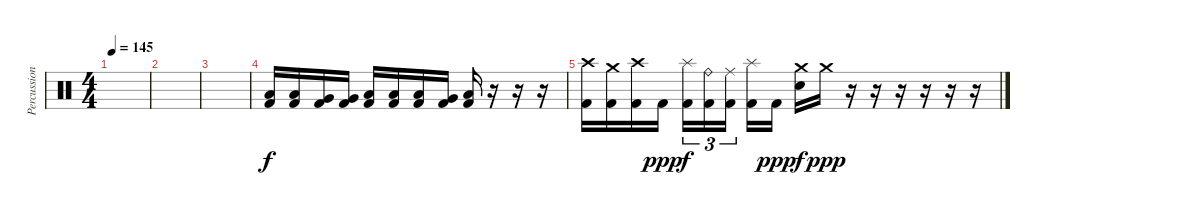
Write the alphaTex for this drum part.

\track ("Percussion" "Percussion") {instrument percussion}
\staff {score}
\articulation defaults
\ts (4 4)
\tempo 145
\clef neutral
\ks c
|
|
|
("Low Tom (hit)" "Kick (hit) 2").16 ("Low Tom (hit)" "Kick (hit) 2").16 ("Very Low Tom (hit)" "Kick (hit) 2").16 ("Very Low Tom (hit)" "Kick (hit) 2").16 ("Low Floor Tom (hit)" "Kick (hit) 2").16 ("Low Tom (hit)" "Kick (hit) 2").16 ("Low Tom (hit)" "Kick (hit) 2").16 ("Very Low Tom (hit)" "Kick (hit) 2").16 ("Low Floor Tom (hit)" "Kick (hit) 2").16 r.16 r.16 r.16 |
("Crash high (hit)" "Kick (hit) 2").16 ("Crash medium (hit)" "Kick (hit) 2").16 ("Crash high (hit)" "Kick (hit) 2").16 "Kick (hit) 2".16{dy ppp} ("Splash (hit)" "Kick (hit) 2").16{tu (3 2) dy f} ("Ride (bell)" "Kick (hit) 2").16{tu (3 2)} ("Ride (middle)" "Kick (hit) 2").16{tu (3 2) beam splitsecondary} ("Splash (hit)" "Kick (hit) 2").16 "Kick (hit) 2".16{dy ppp} ("Crash medium (hit)" "Snare (hit) 2").16{dy f} "Crash medium (hit)".16{dy ppp} r.16 r.16 r.16 r.16 r.16 r.16
